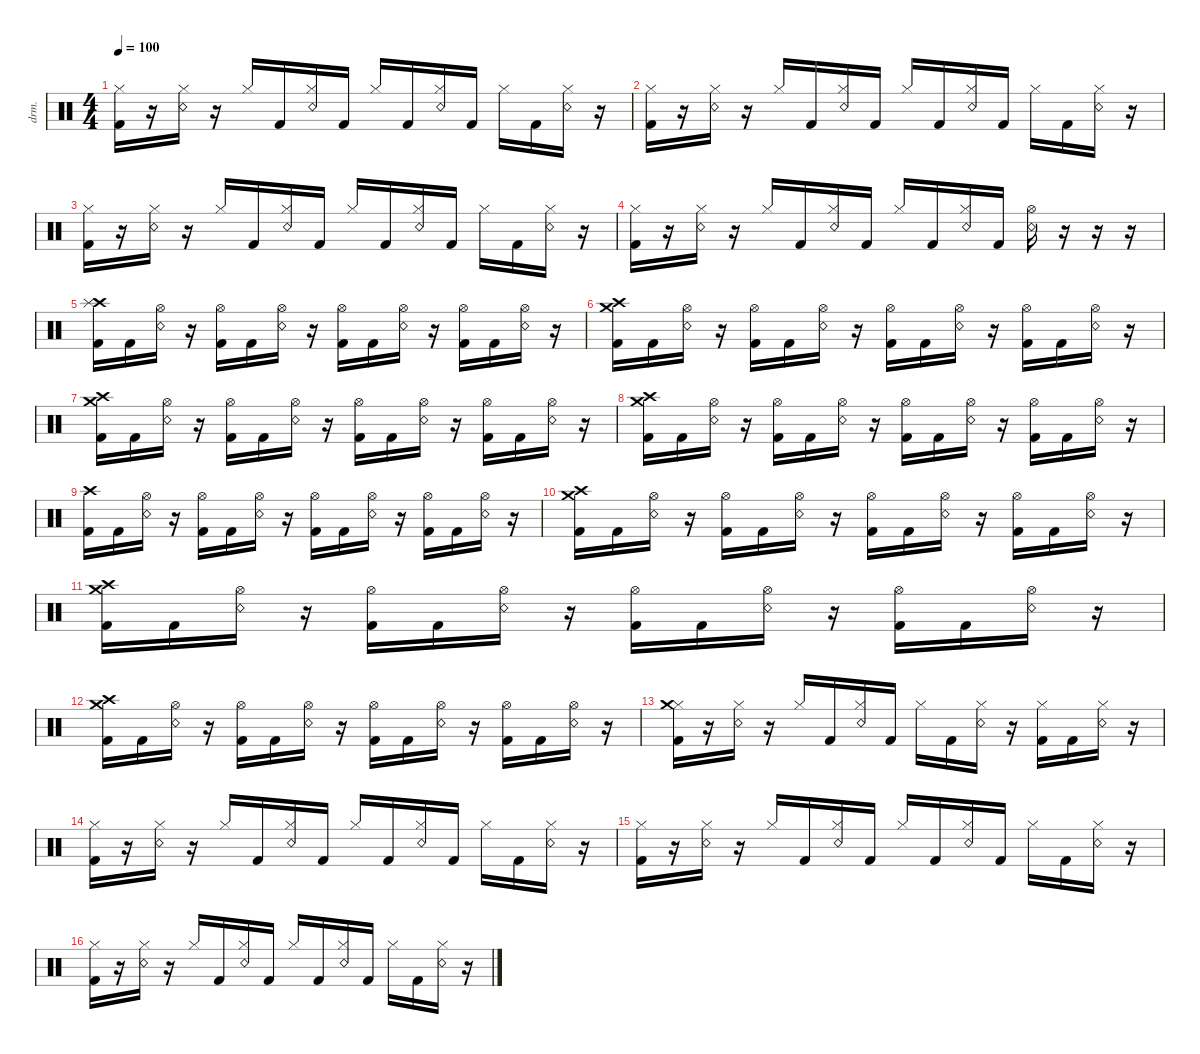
\defaultSystemsLayout 4
\hideDynamics
\bracketExtendMode nobrackets
\otherSystemsTrackNameOrientation horizontal
\track ("Drumkit" "drm.") {instrument percussion}
\staff {score}
\articulation defaults
\ts (4 4)
\tempo 100
\clef neutral
\ks c
("Hi-Hat (closed)" "Kick (hit) 2").16{dy mf beam Down} r.16{beam Down} ("Hi-Hat (closed)" "Snare (rim shot)").16{beam Down} r.16{beam Down} "Hi-Hat (closed)".16{beam Up} "Kick (hit) 2".16{beam Up} ("Hi-Hat (closed)" "Snare (rim shot)").16{beam Up} "Kick (hit) 2".16{beam Up} "Hi-Hat (closed)".16{beam Up} "Kick (hit) 2".16{beam Up} ("Hi-Hat (closed)" "Snare (rim shot)").16{beam Up} "Kick (hit) 2".16{beam Up} "Hi-Hat (closed)".16{beam Down} "Kick (hit) 2".16{beam Down} ("Hi-Hat (closed)" "Snare (rim shot)").16{beam Down} r.16{beam Down} |
("Hi-Hat (closed)" "Kick (hit) 2").16{beam Down} r.16{beam Down} ("Hi-Hat (closed)" "Snare (rim shot)").16{beam Down} r.16{beam Down} "Hi-Hat (closed)".16{beam Up} "Kick (hit) 2".16{beam Up} ("Hi-Hat (closed)" "Snare (rim shot)").16{beam Up} "Kick (hit) 2".16{beam Up} "Hi-Hat (closed)".16{beam Up} "Kick (hit) 2".16{beam Up} ("Hi-Hat (closed)" "Snare (rim shot)").16{beam Up} "Kick (hit) 2".16{beam Up} "Hi-Hat (closed)".16{beam Down} "Kick (hit) 2".16{beam Down} ("Hi-Hat (closed)" "Snare (rim shot)").16{beam Down} r.16{beam Down} |
("Hi-Hat (closed)" "Kick (hit) 2").16{beam Down} r.16{beam Down} ("Hi-Hat (closed)" "Snare (rim shot)").16{beam Down} r.16{beam Down} "Hi-Hat (closed)".16{beam Up} "Kick (hit) 2".16{beam Up} ("Hi-Hat (closed)" "Snare (rim shot)").16{beam Up} "Kick (hit) 2".16{beam Up} "Hi-Hat (closed)".16{beam Up} "Kick (hit) 2".16{beam Up} ("Hi-Hat (closed)" "Snare (rim shot)").16{beam Up} "Kick (hit) 2".16{beam Up} "Hi-Hat (closed)".16{beam Down} "Kick (hit) 2".16{beam Down} ("Hi-Hat (closed)" "Snare (rim shot)").16{beam Down} r.16{beam Down} |
("Hi-Hat (closed)" "Kick (hit) 2").16{beam Down} r.16{beam Down} ("Hi-Hat (closed)" "Snare (rim shot)").16{beam Down} r.16{beam Down} "Hi-Hat (closed)".16{beam Up} "Kick (hit) 2".16{beam Up} ("Hi-Hat (closed)" "Snare (rim shot)").16{beam Up} "Kick (hit) 2".16{beam Up} "Hi-Hat (closed)".16{beam Up} "Kick (hit) 2".16{beam Up} ("Hi-Hat (closed)" "Snare (rim shot)").16{beam Up} "Kick (hit) 2".16{beam Up} ("Snare (rim shot)" "Hi-Hat (open)").16{beam Down} r.16{beam Down} r.16{beam Down} r.16{beam Down} |
("Kick (hit) 2" "Crash high (hit)" "Splash (hit)").16{beam Down} "Kick (hit) 2".16{beam Down} ("Snare (rim shot)" "Hi-Hat (open)").16{beam Down} r.16{beam Down} ("Kick (hit) 2" "Hi-Hat (open)").16{beam Down} "Kick (hit) 2".16{beam Down} ("Snare (rim shot)" "Hi-Hat (open)").16{beam Down} r.16{beam Down} ("Kick (hit) 2" "Hi-Hat (open)").16{beam Down} "Kick (hit) 2".16{beam Down} ("Snare (rim shot)" "Hi-Hat (open)").16{beam Down} r.16{beam Down} ("Kick (hit) 2" "Hi-Hat (open)").16{beam Down} "Kick (hit) 2".16{beam Down} ("Snare (rim shot)" "Hi-Hat (open)").16{beam Down} r.16{beam Down} |
("Kick (hit) 2" "Crash medium (hit)" "Crash high (hit)").16{beam Down} "Kick (hit) 2".16{beam Down} ("Snare (rim shot)" "Hi-Hat (open)").16{beam Down} r.16{beam Down} ("Kick (hit) 2" "Hi-Hat (open)").16{beam Down} "Kick (hit) 2".16{beam Down} ("Snare (rim shot)" "Hi-Hat (open)").16{beam Down} r.16{beam Down} ("Kick (hit) 2" "Hi-Hat (open)").16{beam Down} "Kick (hit) 2".16{beam Down} ("Snare (rim shot)" "Hi-Hat (open)").16{beam Down} r.16{beam Down} ("Kick (hit) 2" "Hi-Hat (open)").16{beam Down} "Kick (hit) 2".16{beam Down} ("Snare (rim shot)" "Hi-Hat (open)").16{beam Down} r.16{beam Down} |
("Kick (hit) 2" "Crash medium (hit)" "Crash high (hit)").16{beam Down} "Kick (hit) 2".16{beam Down} ("Snare (rim shot)" "Hi-Hat (open)").16{beam Down} r.16{beam Down} ("Kick (hit) 2" "Hi-Hat (open)").16{beam Down} "Kick (hit) 2".16{beam Down} ("Snare (rim shot)" "Hi-Hat (open)").16{beam Down} r.16{beam Down} ("Kick (hit) 2" "Hi-Hat (open)").16{beam Down} "Kick (hit) 2".16{beam Down} ("Snare (rim shot)" "Hi-Hat (open)").16{beam Down} r.16{beam Down} ("Kick (hit) 2" "Hi-Hat (open)").16{beam Down} "Kick (hit) 2".16{beam Down} ("Snare (rim shot)" "Hi-Hat (open)").16{beam Down} r.16{beam Down} |
("Kick (hit) 2" "Crash medium (hit)" "Crash high (hit)").16{beam Down} "Kick (hit) 2".16{beam Down} ("Snare (rim shot)" "Hi-Hat (open)").16{beam Down} r.16{beam Down} ("Kick (hit) 2" "Hi-Hat (open)").16{beam Down} "Kick (hit) 2".16{beam Down} ("Snare (rim shot)" "Hi-Hat (open)").16{beam Down} r.16{beam Down} ("Kick (hit) 2" "Hi-Hat (open)").16{beam Down} "Kick (hit) 2".16{beam Down} ("Snare (rim shot)" "Hi-Hat (open)").16{beam Down} r.16{beam Down} ("Kick (hit) 2" "Hi-Hat (open)").16{beam Down} "Kick (hit) 2".16{beam Down} ("Snare (rim shot)" "Hi-Hat (open)").16{beam Down} r.16{beam Down} |
("Kick (hit) 2" "Crash high (hit)").16{beam Down} "Kick (hit) 2".16{beam Down} ("Snare (rim shot)" "Hi-Hat (open)").16{beam Down} r.16{beam Down} ("Kick (hit) 2" "Hi-Hat (open)").16{beam Down} "Kick (hit) 2".16{beam Down} ("Snare (rim shot)" "Hi-Hat (open)").16{beam Down} r.16{beam Down} ("Kick (hit) 2" "Hi-Hat (open)").16{beam Down} "Kick (hit) 2".16{beam Down} ("Snare (rim shot)" "Hi-Hat (open)").16{beam Down} r.16{beam Down} ("Kick (hit) 2" "Hi-Hat (open)").16{beam Down} "Kick (hit) 2".16{beam Down} ("Snare (rim shot)" "Hi-Hat (open)").16{beam Down} r.16{beam Down} |
("Kick (hit) 2" "Crash medium (hit)" "Crash high (hit)").16{beam Down} "Kick (hit) 2".16{beam Down} ("Snare (rim shot)" "Hi-Hat (open)").16{beam Down} r.16{beam Down} ("Kick (hit) 2" "Hi-Hat (open)").16{beam Down} "Kick (hit) 2".16{beam Down} ("Snare (rim shot)" "Hi-Hat (open)").16{beam Down} r.16{beam Down} ("Kick (hit) 2" "Hi-Hat (open)").16{beam Down} "Kick (hit) 2".16{beam Down} ("Snare (rim shot)" "Hi-Hat (open)").16{beam Down} r.16{beam Down} ("Kick (hit) 2" "Hi-Hat (open)").16{beam Down} "Kick (hit) 2".16{beam Down} ("Snare (rim shot)" "Hi-Hat (open)").16{beam Down} r.16{beam Down} |
("Kick (hit) 2" "Crash medium (hit)" "Crash high (hit)").16{beam Down} "Kick (hit) 2".16{beam Down} ("Snare (rim shot)" "Hi-Hat (open)").16{beam Down} r.16{beam Down} ("Kick (hit) 2" "Hi-Hat (open)").16{beam Down} "Kick (hit) 2".16{beam Down} ("Snare (rim shot)" "Hi-Hat (open)").16{beam Down} r.16{beam Down} ("Kick (hit) 2" "Hi-Hat (open)").16{beam Down} "Kick (hit) 2".16{beam Down} ("Snare (rim shot)" "Hi-Hat (open)").16{beam Down} r.16{beam Down} ("Kick (hit) 2" "Hi-Hat (open)").16{beam Down} "Kick (hit) 2".16{beam Down} ("Snare (rim shot)" "Hi-Hat (open)").16{beam Down} r.16{beam Down} |
("Kick (hit) 2" "Crash medium (hit)" "Crash high (hit)").16{beam Down} "Kick (hit) 2".16{beam Down} ("Snare (rim shot)" "Hi-Hat (open)").16{beam Down} r.16{beam Down} ("Kick (hit) 2" "Hi-Hat (open)").16{beam Down} "Kick (hit) 2".16{beam Down} ("Snare (rim shot)" "Hi-Hat (open)").16{beam Down} r.16{beam Down} ("Kick (hit) 2" "Hi-Hat (open)").16{beam Down} "Kick (hit) 2".16{beam Down} ("Snare (rim shot)" "Hi-Hat (open)").16{beam Down} r.16{beam Down} ("Kick (hit) 2" "Hi-Hat (open)").16{beam Down} "Kick (hit) 2".16{beam Down} ("Snare (rim shot)" "Hi-Hat (open)").16{beam Down} r.16{beam Down} |
("Hi-Hat (closed)" "Kick (hit) 2" "Crash medium (hit)").16{beam Down} r.16{beam Down} ("Hi-Hat (closed)" "Snare (rim shot)").16{beam Down} r.16{beam Down} "Hi-Hat (closed)".16{beam Up} "Kick (hit) 2".16{beam Up} ("Hi-Hat (closed)" "Snare (rim shot)").16{beam Up} "Kick (hit) 2".16{beam Up} "Hi-Hat (closed)".16{beam Down} "Kick (hit) 2".16{beam Down} ("Hi-Hat (closed)" "Snare (rim shot)").16{beam Down} r.16{beam Down} ("Hi-Hat (closed)" "Kick (hit) 2").16{beam Down} "Kick (hit) 2".16{beam Down} ("Hi-Hat (closed)" "Snare (rim shot)").16{beam Down} r.16{beam Down} |
("Hi-Hat (closed)" "Kick (hit) 2").16{beam Down} r.16{beam Down} ("Hi-Hat (closed)" "Snare (rim shot)").16{beam Down} r.16{beam Down} "Hi-Hat (closed)".16{beam Up} "Kick (hit) 2".16{beam Up} ("Hi-Hat (closed)" "Snare (rim shot)").16{beam Up} "Kick (hit) 2".16{beam Up} "Hi-Hat (closed)".16{beam Up} "Kick (hit) 2".16{beam Up} ("Hi-Hat (closed)" "Snare (rim shot)").16{beam Up} "Kick (hit) 2".16{beam Up} "Hi-Hat (closed)".16{beam Down} "Kick (hit) 2".16{beam Down} ("Hi-Hat (closed)" "Snare (rim shot)").16{beam Down} r.16{beam Down} |
("Hi-Hat (closed)" "Kick (hit) 2").16{beam Down} r.16{beam Down} ("Hi-Hat (closed)" "Snare (rim shot)").16{beam Down} r.16{beam Down} "Hi-Hat (closed)".16{beam Up} "Kick (hit) 2".16{beam Up} ("Hi-Hat (closed)" "Snare (rim shot)").16{beam Up} "Kick (hit) 2".16{beam Up} "Hi-Hat (closed)".16{beam Up} "Kick (hit) 2".16{beam Up} ("Hi-Hat (closed)" "Snare (rim shot)").16{beam Up} "Kick (hit) 2".16{beam Up} "Hi-Hat (closed)".16{beam Down} "Kick (hit) 2".16{beam Down} ("Hi-Hat (closed)" "Snare (rim shot)").16{beam Down} r.16{beam Down} |
("Hi-Hat (closed)" "Kick (hit) 2").16{beam Down} r.16{beam Down} ("Hi-Hat (closed)" "Snare (rim shot)").16{beam Down} r.16{beam Down} "Hi-Hat (closed)".16{beam Up} "Kick (hit) 2".16{beam Up} ("Hi-Hat (closed)" "Snare (rim shot)").16{beam Up} "Kick (hit) 2".16{beam Up} "Hi-Hat (closed)".16{beam Up} "Kick (hit) 2".16{beam Up} ("Hi-Hat (closed)" "Snare (rim shot)").16{beam Up} "Kick (hit) 2".16{beam Up} "Hi-Hat (closed)".16{beam Down} "Kick (hit) 2".16{beam Down} ("Hi-Hat (closed)" "Snare (rim shot)").16{beam Down} r.16{beam Down}
